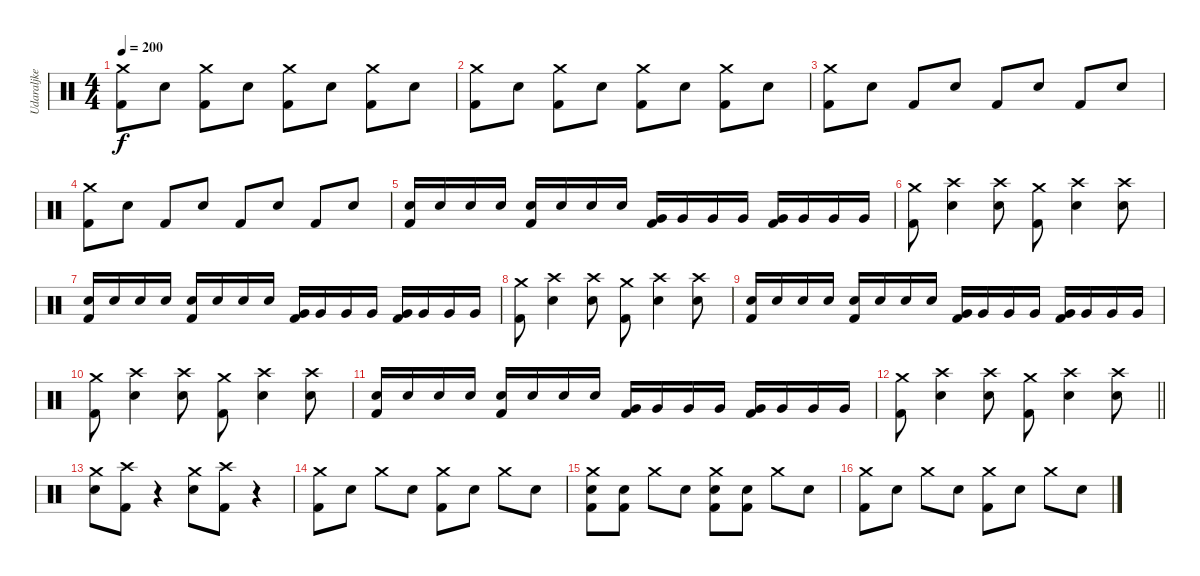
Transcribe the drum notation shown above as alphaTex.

\track ("Udaraljke" "Udaraljke") {instrument percussion}
\staff {score}
\articulation defaults
\ts (4 4)
\tempo 200
\clef neutral
\ks c
("Crash medium (hit)" "Kick (hit) 2").8{dy f} "Electric Snare (hit)".8 ("Crash medium (hit)" "Kick (hit) 2").8 "Electric Snare (hit)".8 ("Crash medium (hit)" "Kick (hit) 2").8 "Electric Snare (hit)".8 ("Crash medium (hit)" "Kick (hit) 2").8 "Electric Snare (hit)".8 |
("Crash medium (hit)" "Kick (hit) 2").8 "Electric Snare (hit)".8 ("Crash medium (hit)" "Kick (hit) 2").8 "Electric Snare (hit)".8 ("Crash medium (hit)" "Kick (hit) 2").8 "Electric Snare (hit)".8 ("Crash medium (hit)" "Kick (hit) 2").8 "Electric Snare (hit)".8 |
("Crash medium (hit)" "Kick (hit) 2").8 "Electric Snare (hit)".8 "Kick (hit) 2".8 "Electric Snare (hit)".8 "Kick (hit) 2".8 "Electric Snare (hit)".8 "Kick (hit) 2".8 "Electric Snare (hit)".8 |
("Crash medium (hit)" "Kick (hit) 2").8 "Electric Snare (hit)".8 "Kick (hit) 2".8 "Electric Snare (hit)".8 "Kick (hit) 2".8 "Electric Snare (hit)".8 "Kick (hit) 2".8 "Electric Snare (hit)".8 |
("Electric Snare (hit)" "Kick (hit) 2").16 "Electric Snare (hit)".16 "Electric Snare (hit)".16 "Electric Snare (hit)".16 ("Electric Snare (hit)" "Kick (hit) 2").16 "Electric Snare (hit)".16 "Electric Snare (hit)".16 "Electric Snare (hit)".16 ("Very Low Tom (hit)" "Kick (hit) 2").16 "Very Low Tom (hit)".16 "Very Low Tom (hit)".16 "Very Low Tom (hit)".16 ("Very Low Tom (hit)" "Kick (hit) 2").16 "Very Low Tom (hit)".16 "Very Low Tom (hit)".16 "Very Low Tom (hit)".16 |
("Crash medium (hit)" "Kick (hit) 2").8 ("Crash high (hit)" "Electric Snare (hit)").4 ("Crash high (hit)" "Electric Snare (hit)").8 ("Crash medium (hit)" "Kick (hit) 2").8 ("Crash high (hit)" "Electric Snare (hit)").4 ("Crash high (hit)" "Electric Snare (hit)").8 |
("Electric Snare (hit)" "Kick (hit) 2").16 "Electric Snare (hit)".16 "Electric Snare (hit)".16 "Electric Snare (hit)".16 ("Electric Snare (hit)" "Kick (hit) 2").16 "Electric Snare (hit)".16 "Electric Snare (hit)".16 "Electric Snare (hit)".16 ("Very Low Tom (hit)" "Kick (hit) 2").16 "Very Low Tom (hit)".16 "Very Low Tom (hit)".16 "Very Low Tom (hit)".16 ("Very Low Tom (hit)" "Kick (hit) 2").16 "Very Low Tom (hit)".16 "Very Low Tom (hit)".16 "Very Low Tom (hit)".16 |
("Crash medium (hit)" "Kick (hit) 2").8 ("Crash high (hit)" "Electric Snare (hit)").4 ("Crash high (hit)" "Electric Snare (hit)").8 ("Crash medium (hit)" "Kick (hit) 2").8 ("Crash high (hit)" "Electric Snare (hit)").4 ("Crash high (hit)" "Electric Snare (hit)").8 |
("Electric Snare (hit)" "Kick (hit) 2").16 "Electric Snare (hit)".16 "Electric Snare (hit)".16 "Electric Snare (hit)".16 ("Electric Snare (hit)" "Kick (hit) 2").16 "Electric Snare (hit)".16 "Electric Snare (hit)".16 "Electric Snare (hit)".16 ("Very Low Tom (hit)" "Kick (hit) 2").16 "Very Low Tom (hit)".16 "Very Low Tom (hit)".16 "Very Low Tom (hit)".16 ("Very Low Tom (hit)" "Kick (hit) 2").16 "Very Low Tom (hit)".16 "Very Low Tom (hit)".16 "Very Low Tom (hit)".16 |
("Crash medium (hit)" "Kick (hit) 2").8 ("Crash high (hit)" "Electric Snare (hit)").4 ("Crash high (hit)" "Electric Snare (hit)").8 ("Crash medium (hit)" "Kick (hit) 2").8 ("Crash high (hit)" "Electric Snare (hit)").4 ("Crash high (hit)" "Electric Snare (hit)").8 |
("Electric Snare (hit)" "Kick (hit) 2").16 "Electric Snare (hit)".16 "Electric Snare (hit)".16 "Electric Snare (hit)".16 ("Electric Snare (hit)" "Kick (hit) 2").16 "Electric Snare (hit)".16 "Electric Snare (hit)".16 "Electric Snare (hit)".16 ("Very Low Tom (hit)" "Kick (hit) 2").16 "Very Low Tom (hit)".16 "Very Low Tom (hit)".16 "Very Low Tom (hit)".16 ("Very Low Tom (hit)" "Kick (hit) 2").16 "Very Low Tom (hit)".16 "Very Low Tom (hit)".16 "Very Low Tom (hit)".16 |
\barLineRight lightlight
("Crash medium (hit)" "Kick (hit) 2").8 ("Crash high (hit)" "Electric Snare (hit)").4 ("Crash high (hit)" "Electric Snare (hit)").8 ("Crash medium (hit)" "Kick (hit) 2").8 ("Crash high (hit)" "Electric Snare (hit)").4 ("Crash high (hit)" "Electric Snare (hit)").8 |
("Crash medium (hit)" "Electric Snare (hit)").8 ("Crash high (hit)" "Kick (hit) 2").8 r.4 ("Crash medium (hit)" "Electric Snare (hit)").8 ("Crash high (hit)" "Kick (hit) 2").8 r.4 |
("Crash medium (hit)" "Kick (hit) 2").8 "Electric Snare (hit)".8 "Crash medium (hit)".8 "Electric Snare (hit)".8 ("Crash medium (hit)" "Kick (hit) 2").8 "Electric Snare (hit)".8 "Crash medium (hit)".8 "Electric Snare (hit)".8 |
("Crash medium (hit)" "Electric Snare (hit)" "Kick (hit) 2").8 ("Electric Snare (hit)" "Kick (hit) 2").8 "Crash medium (hit)".8 "Electric Snare (hit)".8 ("Crash medium (hit)" "Electric Snare (hit)" "Kick (hit) 2").8 ("Electric Snare (hit)" "Kick (hit) 2").8 "Crash medium (hit)".8 "Electric Snare (hit)".8 |
("Crash medium (hit)" "Kick (hit) 2").8 "Electric Snare (hit)".8 "Crash medium (hit)".8 "Electric Snare (hit)".8 ("Crash medium (hit)" "Kick (hit) 2").8 "Electric Snare (hit)".8 "Crash medium (hit)".8 "Electric Snare (hit)".8
